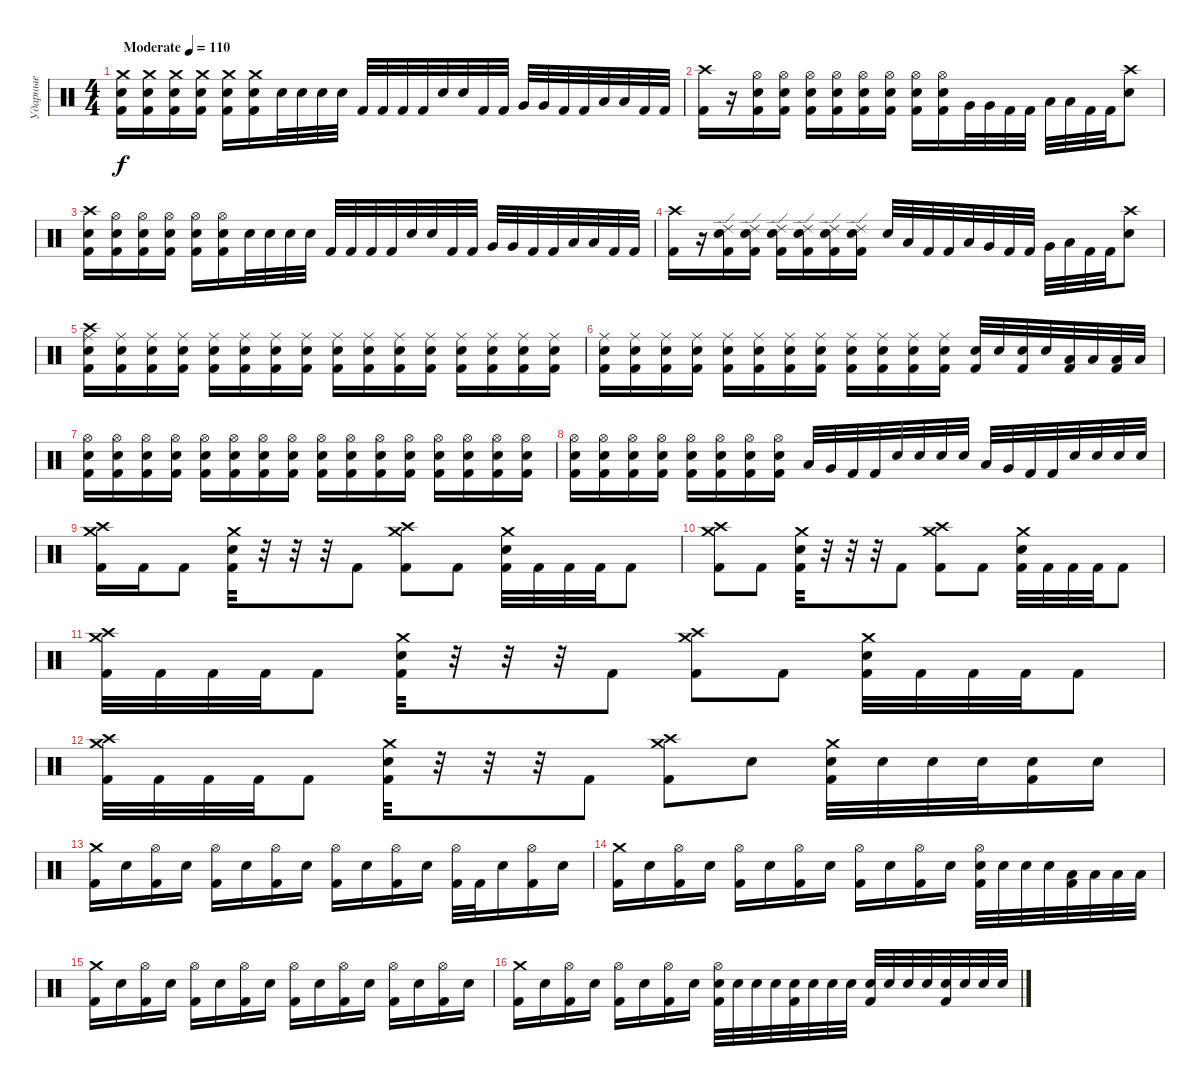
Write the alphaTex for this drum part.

\track ("Ударные" "Ударные") {instrument percussion}
\staff {score}
\articulation defaults
\ts (4 4)
\tempo (110 "Moderate")
\clef neutral
\ks c
("Crash medium (hit)" "Electric Snare (hit)" "Kick (hit) 2").16{dy f} ("Crash medium (hit)" "Electric Snare (hit)" "Kick (hit) 2").16 ("Crash medium (hit)" "Electric Snare (hit)" "Kick (hit) 2").16 ("Crash medium (hit)" "Electric Snare (hit)" "Kick (hit) 2").16 ("Crash medium (hit)" "Electric Snare (hit)" "Kick (hit) 2").16 ("Crash medium (hit)" "Electric Snare (hit)" "Kick (hit) 2").16 "Electric Snare (hit)".32 "Electric Snare (hit)".32 "Electric Snare (hit)".32 "Electric Snare (hit)".32 "Kick (hit) 2".32 "Kick (hit) 2".32 "Kick (hit) 2".32 "Kick (hit) 2".32 "Electric Snare (hit)".32 "Electric Snare (hit)".32 "Kick (hit) 2".32 "Kick (hit) 2".32 "Very Low Tom (hit)".32 "Very Low Tom (hit)".32 "Kick (hit) 2".32 "Kick (hit) 2".32 "Low Floor Tom (hit)".32 "Low Floor Tom (hit)".32 "Kick (hit) 2".32 "Kick (hit) 2".32 |
("Crash high (hit)" "Kick (hit) 2").16 r.16 ("Hi-Hat (open)" "Electric Snare (hit)" "Kick (hit) 2").16 ("Hi-Hat (open)" "Electric Snare (hit)" "Kick (hit) 2").16 ("Hi-Hat (open)" "Electric Snare (hit)" "Kick (hit) 2").16 ("Hi-Hat (open)" "Electric Snare (hit)" "Kick (hit) 2").16 ("Hi-Hat (open)" "Electric Snare (hit)" "Kick (hit) 2").16 ("Hi-Hat (open)" "Electric Snare (hit)" "Kick (hit) 2").16 ("Hi-Hat (open)" "Electric Snare (hit)" "Kick (hit) 2").16 ("Hi-Hat (open)" "Electric Snare (hit)" "Kick (hit) 2").16 "Very Low Tom (hit)".32 "Very Low Tom (hit)".32 "Kick (hit) 2".32 "Kick (hit) 2".32 "Low Floor Tom (hit)".32 "Low Floor Tom (hit)".32 "Kick (hit) 2".32 "Kick (hit) 2".32 ("Crash high (hit)" "Snare (hit) 2").8 |
("Crash high (hit)" "Electric Snare (hit)" "Kick (hit) 2").16 ("Hi-Hat (open)" "Electric Snare (hit)" "Kick (hit) 2").16 ("Hi-Hat (open)" "Electric Snare (hit)" "Kick (hit) 2").16 ("Hi-Hat (open)" "Electric Snare (hit)" "Kick (hit) 2").16 ("Hi-Hat (open)" "Electric Snare (hit)" "Kick (hit) 2").16 ("Hi-Hat (open)" "Electric Snare (hit)" "Kick (hit) 2").16 "Electric Snare (hit)".32 "Electric Snare (hit)".32 "Electric Snare (hit)".32 "Electric Snare (hit)".32 "Kick (hit) 2".32 "Kick (hit) 2".32 "Kick (hit) 2".32 "Kick (hit) 2".32 "Electric Snare (hit)".32 "Electric Snare (hit)".32 "Kick (hit) 2".32 "Kick (hit) 2".32 "Very Low Tom (hit)".32 "Very Low Tom (hit)".32 "Kick (hit) 2".32 "Kick (hit) 2".32 "Low Floor Tom (hit)".32 "Low Floor Tom (hit)".32 "Kick (hit) 2".32 "Kick (hit) 2".32 |
("Crash high (hit)" "Kick (hit) 2").16 r.16 ("Ride (edge) 2" "Electric Snare (hit)" "Kick (hit) 2").16 ("Ride (edge) 2" "Electric Snare (hit)" "Kick (hit) 2").16 ("Ride (edge) 2" "Electric Snare (hit)" "Kick (hit) 2").16 ("Ride (edge) 2" "Electric Snare (hit)" "Kick (hit) 2").16 ("Ride (edge) 2" "Electric Snare (hit)" "Kick (hit) 2").16 ("Ride (edge) 2" "Electric Snare (hit)" "Kick (hit) 2").16 "Electric Snare (hit)".32 "Low Tom (hit)".32 "Kick (hit) 2".32 "Kick (hit) 2".32 "Low Tom (hit)".32 "Very Low Tom (hit)".32 "Kick (hit) 2".32 "Kick (hit) 2".32 "Very Low Tom (hit)".32 "Low Floor Tom (hit)".32 "Kick (hit) 2".32 "Kick (hit) 2".32 ("Crash high (hit)" "Snare (hit) 2").8 |
("Crash high (hit)" "Ride (middle)" "Electric Snare (hit)" "Kick (hit) 2").16 ("Ride (middle)" "Electric Snare (hit)" "Kick (hit) 2").16 ("Ride (middle)" "Electric Snare (hit)" "Kick (hit) 2").16 ("Ride (middle)" "Electric Snare (hit)" "Kick (hit) 2").16 ("Ride (middle)" "Electric Snare (hit)" "Kick (hit) 2").16 ("Ride (middle)" "Electric Snare (hit)" "Kick (hit) 2").16 ("Ride (middle)" "Electric Snare (hit)" "Kick (hit) 2").16 ("Ride (middle)" "Electric Snare (hit)" "Kick (hit) 2").16 ("Ride (middle)" "Electric Snare (hit)" "Kick (hit) 2").16 ("Ride (middle)" "Electric Snare (hit)" "Kick (hit) 2").16 ("Ride (middle)" "Electric Snare (hit)" "Kick (hit) 2").16 ("Ride (middle)" "Electric Snare (hit)" "Kick (hit) 2").16 ("Ride (middle)" "Electric Snare (hit)" "Kick (hit) 2").16 ("Ride (middle)" "Electric Snare (hit)" "Kick (hit) 2").16 ("Ride (middle)" "Electric Snare (hit)" "Kick (hit) 2").16 ("Ride (middle)" "Electric Snare (hit)" "Kick (hit) 2").16 |
("Ride (middle)" "Electric Snare (hit)" "Kick (hit) 2").16 ("Ride (middle)" "Electric Snare (hit)" "Kick (hit) 2").16 ("Ride (middle)" "Electric Snare (hit)" "Kick (hit) 2").16 ("Ride (middle)" "Electric Snare (hit)" "Kick (hit) 2").16 ("Ride (middle)" "Electric Snare (hit)" "Kick (hit) 2").16 ("Ride (middle)" "Electric Snare (hit)" "Kick (hit) 2").16 ("Ride (middle)" "Electric Snare (hit)" "Kick (hit) 2").16 ("Ride (middle)" "Electric Snare (hit)" "Kick (hit) 2").16 ("Ride (middle)" "Electric Snare (hit)" "Kick (hit) 2").16 ("Ride (middle)" "Electric Snare (hit)" "Kick (hit) 2").16 ("Ride (middle)" "Electric Snare (hit)" "Kick (hit) 2").16 ("Ride (middle)" "Electric Snare (hit)" "Kick (hit) 2").16 ("Electric Snare (hit)" "Kick (hit) 2").32 "Electric Snare (hit)".32 ("Electric Snare (hit)" "Kick (hit) 2").32 "Electric Snare (hit)".32 ("Low Tom (hit)" "Kick (hit) 2").32 "Low Tom (hit)".32 ("Low Tom (hit)" "Kick (hit) 2").32 "Low Tom (hit)".32 |
("Hi-Hat (open)" "Electric Snare (hit)" "Kick (hit) 2").16 ("Hi-Hat (open)" "Electric Snare (hit)" "Kick (hit) 2").16 ("Hi-Hat (open)" "Electric Snare (hit)" "Kick (hit) 2").16 ("Hi-Hat (open)" "Electric Snare (hit)" "Kick (hit) 2").16 ("Hi-Hat (open)" "Electric Snare (hit)" "Kick (hit) 2").16 ("Hi-Hat (open)" "Electric Snare (hit)" "Kick (hit) 2").16 ("Hi-Hat (open)" "Electric Snare (hit)" "Kick (hit) 2").16 ("Hi-Hat (open)" "Electric Snare (hit)" "Kick (hit) 2").16 ("Hi-Hat (open)" "Electric Snare (hit)" "Kick (hit) 2").16 ("Hi-Hat (open)" "Electric Snare (hit)" "Kick (hit) 2").16 ("Hi-Hat (open)" "Electric Snare (hit)" "Kick (hit) 2").16 ("Hi-Hat (open)" "Electric Snare (hit)" "Kick (hit) 2").16 ("Hi-Hat (open)" "Electric Snare (hit)" "Kick (hit) 2").16 ("Hi-Hat (open)" "Electric Snare (hit)" "Kick (hit) 2").16 ("Hi-Hat (open)" "Electric Snare (hit)" "Kick (hit) 2").16 ("Hi-Hat (open)" "Electric Snare (hit)" "Kick (hit) 2").16 |
("Hi-Hat (open)" "Electric Snare (hit)" "Kick (hit) 2").16 ("Hi-Hat (open)" "Electric Snare (hit)" "Kick (hit) 2").16 ("Hi-Hat (open)" "Electric Snare (hit)" "Kick (hit) 2").16 ("Hi-Hat (open)" "Electric Snare (hit)" "Kick (hit) 2").16 ("Hi-Hat (open)" "Electric Snare (hit)" "Kick (hit) 2").16 ("Hi-Hat (open)" "Electric Snare (hit)" "Kick (hit) 2").16 ("Hi-Hat (open)" "Electric Snare (hit)" "Kick (hit) 2").16 ("Hi-Hat (open)" "Electric Snare (hit)" "Kick (hit) 2").16 "Low Tom (hit)".32 "Very Low Tom (hit)".32 "Kick (hit) 2".32 "Kick (hit) 2".32 "Electric Snare (hit)".32 "Electric Snare (hit)".32 "Electric Snare (hit)".32 "Electric Snare (hit)".32 "Low Tom (hit)".32 "Very Low Tom (hit)".32 "Kick (hit) 2".32 "Kick (hit) 2".32 "Electric Snare (hit)".32 "Electric Snare (hit)".32 "Electric Snare (hit)".32 "Electric Snare (hit)".32 |
("Crash medium (hit)" "Crash high (hit)" "Kick (hit) 2").16 "Kick (hit) 2".16 "Kick (hit) 2".8 ("Crash medium (hit)" "Electric Snare (hit)" "Kick (hit) 2").32 r.32 r.32 r.32 "Kick (hit) 2".8 ("Crash medium (hit)" "Crash high (hit)" "Kick (hit) 2").8 "Kick (hit) 2".8 ("Crash medium (hit)" "Electric Snare (hit)" "Kick (hit) 2").32 "Kick (hit) 2".32 "Kick (hit) 2".32 "Kick (hit) 2".32 "Kick (hit) 2".8 |
("Crash medium (hit)" "Crash high (hit)" "Kick (hit) 2").8 "Kick (hit) 2".8 ("Crash medium (hit)" "Electric Snare (hit)" "Kick (hit) 2").32 r.32 r.32 r.32 "Kick (hit) 2".8 ("Crash medium (hit)" "Crash high (hit)" "Kick (hit) 2").8 "Kick (hit) 2".8 ("Crash medium (hit)" "Electric Snare (hit)" "Kick (hit) 2").32 "Kick (hit) 2".32 "Kick (hit) 2".32 "Kick (hit) 2".32 "Kick (hit) 2".8 |
("Crash medium (hit)" "Crash high (hit)" "Kick (hit) 2").32 "Kick (hit) 2".32 "Kick (hit) 2".32 "Kick (hit) 2".32 "Kick (hit) 2".8 ("Crash medium (hit)" "Electric Snare (hit)" "Kick (hit) 2").32 r.32 r.32 r.32 "Kick (hit) 2".8 ("Crash medium (hit)" "Crash high (hit)" "Kick (hit) 2").8 "Kick (hit) 2".8 ("Crash medium (hit)" "Electric Snare (hit)" "Kick (hit) 2").32 "Kick (hit) 2".32 "Kick (hit) 2".32 "Kick (hit) 2".32 "Kick (hit) 2".8 |
("Crash medium (hit)" "Crash high (hit)" "Kick (hit) 2").32 "Kick (hit) 2".32 "Kick (hit) 2".32 "Kick (hit) 2".32 "Kick (hit) 2".8 ("Crash medium (hit)" "Electric Snare (hit)" "Kick (hit) 2").32 r.32 r.32 r.32 "Kick (hit) 2".8 ("Crash medium (hit)" "Crash high (hit)" "Kick (hit) 2").8 "Electric Snare (hit)".8 ("Crash medium (hit)" "Kick (hit) 2" "Electric Snare (hit)").32 "Electric Snare (hit)".32 "Electric Snare (hit)".32 "Electric Snare (hit)".32 ("Kick (hit) 2" "Electric Snare (hit)").16 "Electric Snare (hit)".16 |
("Crash medium (hit)" "Kick (hit) 2").16 "Electric Snare (hit)".16 ("Hi-Hat (open)" "Kick (hit) 2").16 "Electric Snare (hit)".16 ("Hi-Hat (open)" "Kick (hit) 2").16 "Electric Snare (hit)".16 ("Hi-Hat (open)" "Kick (hit) 2").16 "Electric Snare (hit)".16 ("Hi-Hat (open)" "Kick (hit) 2").16 "Electric Snare (hit)".16 ("Hi-Hat (open)" "Kick (hit) 2").16 "Electric Snare (hit)".16 ("Hi-Hat (open)" "Kick (hit) 2").32 "Kick (hit) 2".32 "Electric Snare (hit)".16 ("Hi-Hat (open)" "Kick (hit) 2").16 "Electric Snare (hit)".16 |
("Crash medium (hit)" "Kick (hit) 2").16 "Electric Snare (hit)".16 ("Hi-Hat (open)" "Kick (hit) 2").16 "Electric Snare (hit)".16 ("Hi-Hat (open)" "Kick (hit) 2").16 "Electric Snare (hit)".16 ("Hi-Hat (open)" "Kick (hit) 2").16 "Electric Snare (hit)".16 ("Hi-Hat (open)" "Kick (hit) 2").16 "Electric Snare (hit)".16 ("Hi-Hat (open)" "Kick (hit) 2").16 "Electric Snare (hit)".16 ("Hi-Hat (open)" "Kick (hit) 2" "Electric Snare (hit)").32 "Electric Snare (hit)".32 "Electric Snare (hit)".32 "Electric Snare (hit)".32 ("Kick (hit) 2" "Low Tom (hit)").32 "Low Tom (hit)".32 "Low Tom (hit)".32 "Low Tom (hit)".32 |
("Crash medium (hit)" "Kick (hit) 2").16 "Electric Snare (hit)".16 ("Hi-Hat (open)" "Kick (hit) 2").16 "Electric Snare (hit)".16 ("Hi-Hat (open)" "Kick (hit) 2").16 "Electric Snare (hit)".16 ("Hi-Hat (open)" "Kick (hit) 2").16 "Electric Snare (hit)".16 ("Hi-Hat (open)" "Kick (hit) 2").16 "Electric Snare (hit)".16 ("Hi-Hat (open)" "Kick (hit) 2").16 "Electric Snare (hit)".16 ("Hi-Hat (open)" "Kick (hit) 2").16 "Electric Snare (hit)".16 ("Hi-Hat (open)" "Kick (hit) 2").16 "Electric Snare (hit)".16 |
("Crash medium (hit)" "Kick (hit) 2").16 "Electric Snare (hit)".16 ("Hi-Hat (open)" "Kick (hit) 2").16 "Electric Snare (hit)".16 ("Hi-Hat (open)" "Kick (hit) 2").16 "Electric Snare (hit)".16 ("Hi-Hat (open)" "Kick (hit) 2").16 "Electric Snare (hit)".16 ("Hi-Hat (open)" "Electric Snare (hit)" "Kick (hit) 2").32 "Electric Snare (hit)".32 "Electric Snare (hit)".32 "Electric Snare (hit)".32 ("Electric Snare (hit)" "Kick (hit) 2").32 "Electric Snare (hit)".32 "Electric Snare (hit)".32 "Electric Snare (hit)".32 ("Electric Snare (hit)" "Kick (hit) 2").32 "Electric Snare (hit)".32 "Electric Snare (hit)".32 "Electric Snare (hit)".32 ("Electric Snare (hit)" "Kick (hit) 2").32 "Electric Snare (hit)".32 "Electric Snare (hit)".32 "Electric Snare (hit)".32
